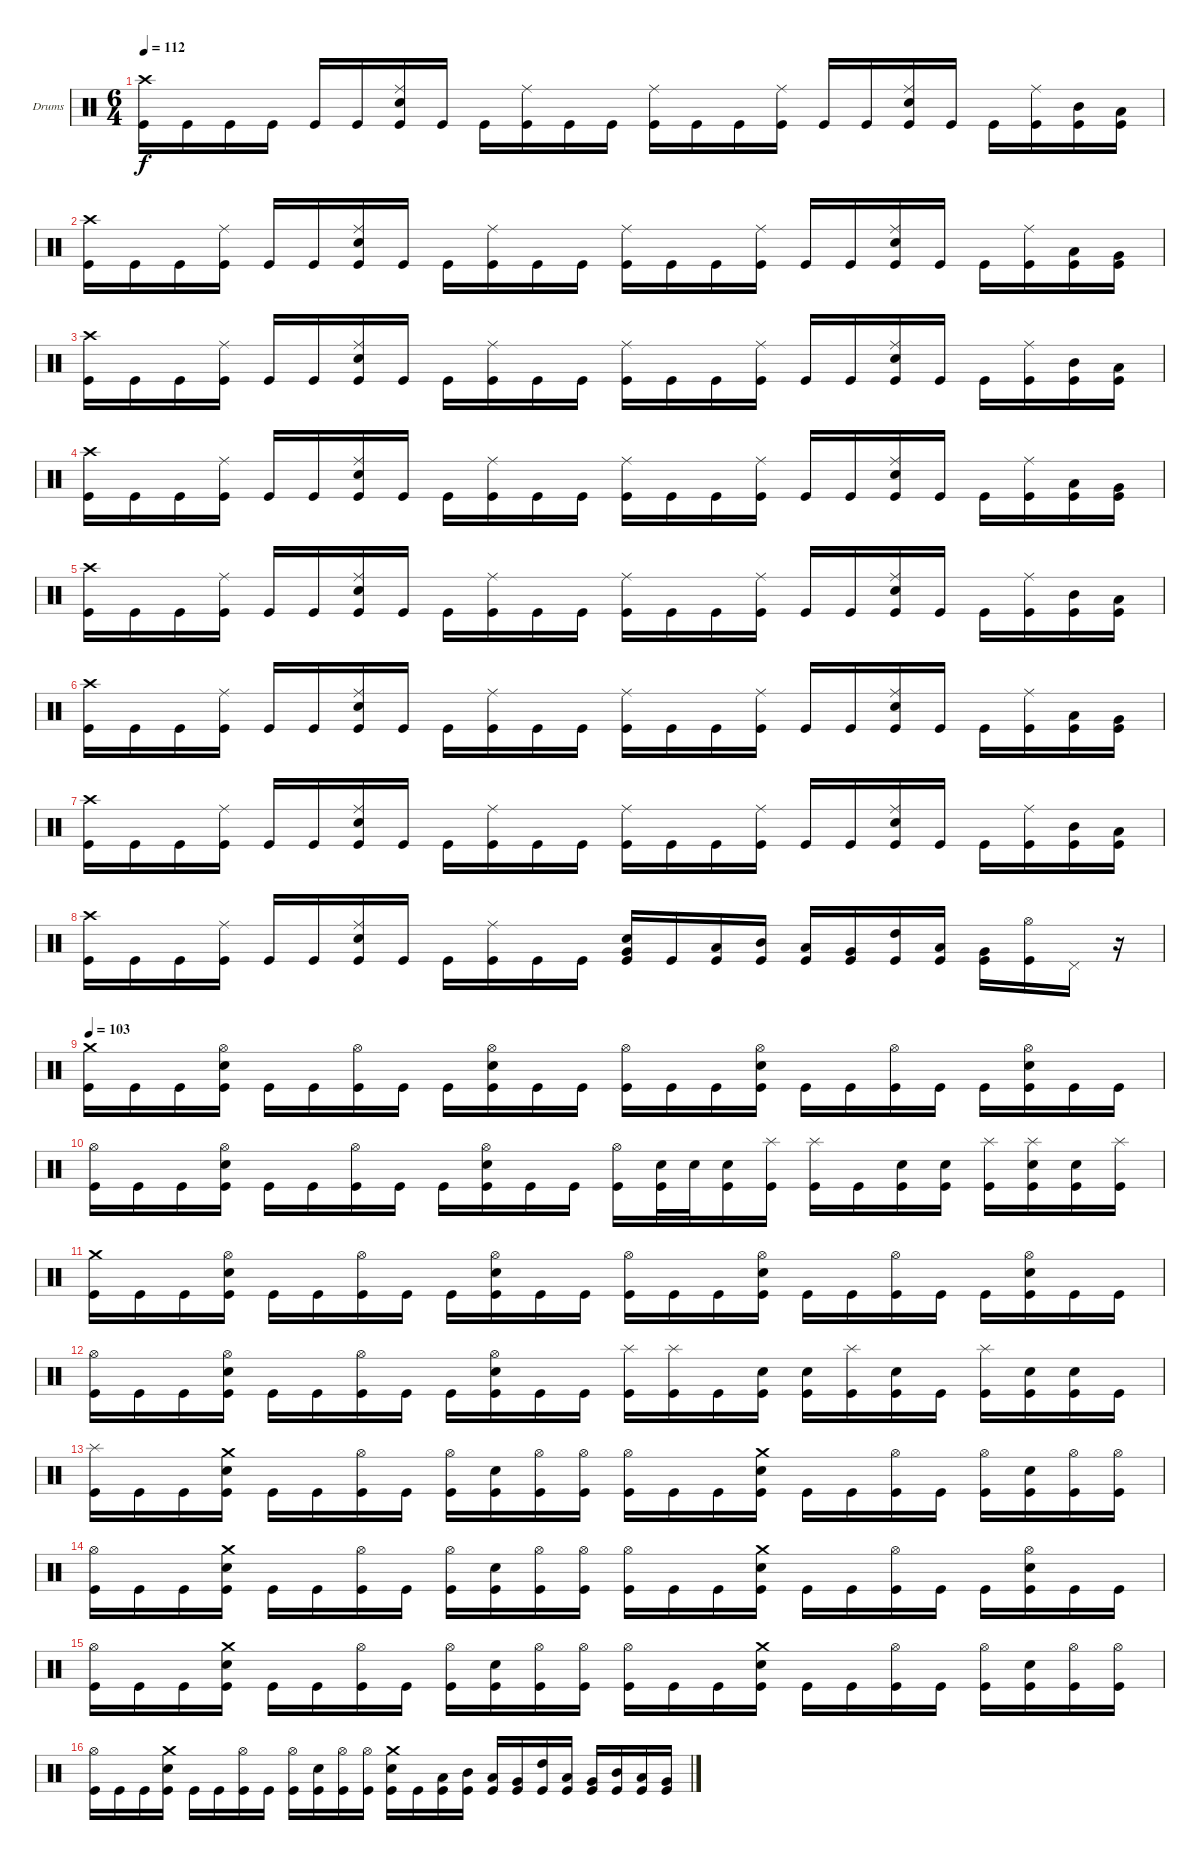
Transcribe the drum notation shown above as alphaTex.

\bracketExtendMode groupsimilarinstruments
\firstSystemTrackNameOrientation horizontal
\otherSystemsTrackNameOrientation horizontal
\track ("Drumkit" "Drums") {instrument percussion}
\staff {score}
\articulation defaults
\ts (6 4)
\tempo 112
\clef neutral
\ks c
("Crash high (hit)" "Kick (hit)").16{dy f} "Kick (hit)".16 "Kick (hit)".16 "Kick (hit)".16 "Kick (hit)".16 "Kick (hit)".16 ("Ride (middle)" "Snare (hit) 2" "Kick (hit)").16 "Kick (hit)".16 "Kick (hit)".16 ("Ride (middle)" "Kick (hit)").16 "Kick (hit)".16 "Kick (hit)".16 ("Ride (middle)" "Kick (hit)").16 "Kick (hit)".16 "Kick (hit)".16 ("Ride (middle)" "Kick (hit)").16 "Kick (hit)".16 "Kick (hit)".16 ("Ride (middle)" "Snare (hit) 2" "Kick (hit)").16 "Kick (hit)".16 "Kick (hit)".16 ("Ride (middle)" "Kick (hit)").16 ("Mid Tom (hit)" "Kick (hit)").16 ("Low Tom (hit)" "Kick (hit)").16 |
("Crash high (hit)" "Kick (hit)").16 "Kick (hit)".16 "Kick (hit)".16 ("Ride (middle)" "Kick (hit)").16 "Kick (hit)".16 "Kick (hit)".16 ("Ride (middle)" "Snare (hit) 2" "Kick (hit)").16 "Kick (hit)".16 "Kick (hit)".16 ("Ride (middle)" "Kick (hit)").16 "Kick (hit)".16 "Kick (hit)".16 ("Ride (middle)" "Kick (hit)").16 "Kick (hit)".16 "Kick (hit)".16 ("Ride (middle)" "Kick (hit)").16 "Kick (hit)".16 "Kick (hit)".16 ("Ride (middle)" "Snare (hit) 2" "Kick (hit)").16 "Kick (hit)".16 "Kick (hit)".16 ("Ride (middle)" "Kick (hit)").16 ("Low Tom (hit)" "Kick (hit)").16 ("Very Low Tom (hit)" "Kick (hit)").16 |
("Crash high (hit)" "Kick (hit)").16 "Kick (hit)".16 "Kick (hit)".16 ("Ride (middle)" "Kick (hit)").16 "Kick (hit)".16 "Kick (hit)".16 ("Ride (middle)" "Snare (hit) 2" "Kick (hit)").16 "Kick (hit)".16 "Kick (hit)".16 ("Ride (middle)" "Kick (hit)").16 "Kick (hit)".16 "Kick (hit)".16 ("Ride (middle)" "Kick (hit)").16 "Kick (hit)".16 "Kick (hit)".16 ("Ride (middle)" "Kick (hit)").16 "Kick (hit)".16 "Kick (hit)".16 ("Ride (middle)" "Snare (hit) 2" "Kick (hit)").16 "Kick (hit)".16 "Kick (hit)".16 ("Ride (middle)" "Kick (hit)").16 ("Mid Tom (hit)" "Kick (hit)").16 ("Low Tom (hit)" "Kick (hit)").16 |
("Crash high (hit)" "Kick (hit)").16 "Kick (hit)".16 "Kick (hit)".16 ("Ride (middle)" "Kick (hit)").16 "Kick (hit)".16 "Kick (hit)".16 ("Ride (middle)" "Snare (hit) 2" "Kick (hit)").16 "Kick (hit)".16 "Kick (hit)".16 ("Ride (middle)" "Kick (hit)").16 "Kick (hit)".16 "Kick (hit)".16 ("Ride (middle)" "Kick (hit)").16 "Kick (hit)".16 "Kick (hit)".16 ("Ride (middle)" "Kick (hit)").16 "Kick (hit)".16 "Kick (hit)".16 ("Ride (middle)" "Snare (hit) 2" "Kick (hit)").16 "Kick (hit)".16 "Kick (hit)".16 ("Ride (middle)" "Kick (hit)").16 ("Low Tom (hit)" "Kick (hit)").16 ("Very Low Tom (hit)" "Kick (hit)").16 |
("Crash high (hit)" "Kick (hit)").16 "Kick (hit)".16 "Kick (hit)".16 ("Ride (middle)" "Kick (hit)").16 "Kick (hit)".16 "Kick (hit)".16 ("Ride (middle)" "Snare (hit) 2" "Kick (hit)").16 "Kick (hit)".16 "Kick (hit)".16 ("Ride (middle)" "Kick (hit)").16 "Kick (hit)".16 "Kick (hit)".16 ("Ride (middle)" "Kick (hit)").16 "Kick (hit)".16 "Kick (hit)".16 ("Ride (middle)" "Kick (hit)").16 "Kick (hit)".16 "Kick (hit)".16 ("Ride (middle)" "Snare (hit) 2" "Kick (hit)").16 "Kick (hit)".16 "Kick (hit)".16 ("Ride (middle)" "Kick (hit)").16 ("Mid Tom (hit)" "Kick (hit)").16 ("Low Tom (hit)" "Kick (hit)").16 |
("Crash high (hit)" "Kick (hit)").16 "Kick (hit)".16 "Kick (hit)".16 ("Ride (middle)" "Kick (hit)").16 "Kick (hit)".16 "Kick (hit)".16 ("Ride (middle)" "Snare (hit) 2" "Kick (hit)").16 "Kick (hit)".16 "Kick (hit)".16 ("Ride (middle)" "Kick (hit)").16 "Kick (hit)".16 "Kick (hit)".16 ("Ride (middle)" "Kick (hit)").16 "Kick (hit)".16 "Kick (hit)".16 ("Ride (middle)" "Kick (hit)").16 "Kick (hit)".16 "Kick (hit)".16 ("Ride (middle)" "Snare (hit) 2" "Kick (hit)").16 "Kick (hit)".16 "Kick (hit)".16 ("Ride (middle)" "Kick (hit)").16 ("Low Tom (hit)" "Kick (hit)").16 ("Very Low Tom (hit)" "Kick (hit)").16 |
("Crash high (hit)" "Kick (hit)").16 "Kick (hit)".16 "Kick (hit)".16 ("Ride (middle)" "Kick (hit)").16 "Kick (hit)".16 "Kick (hit)".16 ("Ride (middle)" "Snare (hit) 2" "Kick (hit)").16 "Kick (hit)".16 "Kick (hit)".16 ("Ride (middle)" "Kick (hit)").16 "Kick (hit)".16 "Kick (hit)".16 ("Ride (middle)" "Kick (hit)").16 "Kick (hit)".16 "Kick (hit)".16 ("Ride (middle)" "Kick (hit)").16 "Kick (hit)".16 "Kick (hit)".16 ("Ride (middle)" "Snare (hit) 2" "Kick (hit)").16 "Kick (hit)".16 "Kick (hit)".16 ("Ride (middle)" "Kick (hit)").16 ("Mid Tom (hit)" "Kick (hit)").16 ("Low Tom (hit)" "Kick (hit)").16 |
("Crash high (hit)" "Kick (hit)").16 "Kick (hit)".16 "Kick (hit)".16 ("Ride (middle)" "Kick (hit)").16 "Kick (hit)".16 "Kick (hit)".16 ("Ride (middle)" "Snare (hit) 2" "Kick (hit)").16 "Kick (hit)".16 "Kick (hit)".16 ("Ride (middle)" "Kick (hit)").16 "Kick (hit)".16 "Kick (hit)".16 ("Snare (hit) 2" "Very Low Tom (hit)" "Kick (hit)").16 "Kick (hit)".16 ("Low Tom (hit)" "Kick (hit)").16 ("Mid Tom (hit)" "Kick (hit)").16 ("Low Tom (hit)" "Kick (hit)").16 ("Very Low Tom (hit)" "Kick (hit)").16 ("High Tom (hit)" "Kick (hit)").16 ("Low Tom (hit)" "Kick (hit)").16 ("Very Low Tom (hit)" "Kick (hit)").16 ("Hi-Hat (open)" "Kick (hit)").16 "Pedal Hi-Hat (hit)".16 r.16 |
\tempo 103
("Crash medium (hit)" "Kick (hit)").16 "Kick (hit)".16 "Kick (hit)".16 ("Hi-Hat (open)" "Snare (hit) 2" "Kick (hit)").16 "Kick (hit)".16 "Kick (hit)".16 ("Hi-Hat (open)" "Kick (hit)").16 "Kick (hit)".16 "Kick (hit)".16 ("Hi-Hat (open)" "Snare (hit) 2" "Kick (hit)").16 "Kick (hit)".16 "Kick (hit)".16 ("Hi-Hat (open)" "Kick (hit)").16 "Kick (hit)".16 "Kick (hit)".16 ("Hi-Hat (open)" "Snare (hit) 2" "Kick (hit)").16 "Kick (hit)".16 "Kick (hit)".16 ("Hi-Hat (open)" "Kick (hit)").16 "Kick (hit)".16 "Kick (hit)".16 ("Hi-Hat (open)" "Snare (hit) 2" "Kick (hit)").16 "Kick (hit)".16 "Kick (hit)".16 |
("Hi-Hat (open)" "Kick (hit)").16 "Kick (hit)".16 "Kick (hit)".16 ("Hi-Hat (open)" "Snare (hit) 2" "Kick (hit)").16 "Kick (hit)".16 "Kick (hit)".16 ("Hi-Hat (open)" "Kick (hit)").16 "Kick (hit)".16 "Kick (hit)".16 ("Hi-Hat (open)" "Snare (hit) 2" "Kick (hit)").16 "Kick (hit)".16 "Kick (hit)".16 ("Hi-Hat (open)" "Kick (hit)").16 ("Snare (hit) 2" "Kick (hit)").32 "Snare (hit) 2".32 ("Snare (hit) 2" "Kick (hit)").16 ("Splash (hit)" "Kick (hit)").16 ("Splash (hit)" "Kick (hit)").16 "Kick (hit)".16 ("Snare (hit) 2" "Kick (hit)").16 ("Snare (hit) 2" "Kick (hit)").16 ("Splash (hit)" "Kick (hit)").16 ("Splash (hit)" "Snare (hit) 2" "Kick (hit)").16 ("Snare (hit) 2" "Kick (hit)").16 ("Splash (hit)" "Kick (hit)").16 |
("Crash medium (hit)" "Kick (hit)").16 "Kick (hit)".16 "Kick (hit)".16 ("Hi-Hat (open)" "Snare (hit) 2" "Kick (hit)").16 "Kick (hit)".16 "Kick (hit)".16 ("Hi-Hat (open)" "Kick (hit)").16 "Kick (hit)".16 "Kick (hit)".16 ("Hi-Hat (open)" "Snare (hit) 2" "Kick (hit)").16 "Kick (hit)".16 "Kick (hit)".16 ("Hi-Hat (open)" "Kick (hit)").16 "Kick (hit)".16 "Kick (hit)".16 ("Hi-Hat (open)" "Snare (hit) 2" "Kick (hit)").16 "Kick (hit)".16 "Kick (hit)".16 ("Hi-Hat (open)" "Kick (hit)").16 "Kick (hit)".16 "Kick (hit)".16 ("Hi-Hat (open)" "Snare (hit) 2" "Kick (hit)").16 "Kick (hit)".16 "Kick (hit)".16 |
("Hi-Hat (open)" "Kick (hit)").16 "Kick (hit)".16 "Kick (hit)".16 ("Hi-Hat (open)" "Snare (hit) 2" "Kick (hit)").16 "Kick (hit)".16 "Kick (hit)".16 ("Hi-Hat (open)" "Kick (hit)").16 "Kick (hit)".16 "Kick (hit)".16 ("Hi-Hat (open)" "Snare (hit) 2" "Kick (hit)").16 "Kick (hit)".16 "Kick (hit)".16 ("Splash (hit)" "Kick (hit)").16 ("Splash (hit)" "Kick (hit)").16 "Kick (hit)".16 ("Snare (hit) 2" "Kick (hit)").16 ("Snare (hit) 2" "Kick (hit)").16 ("Splash (hit)" "Kick (hit)").16 ("Snare (hit) 2" "Kick (hit)").16 "Kick (hit)".16 ("Splash (hit)" "Kick (hit)").16 ("Snare (hit) 2" "Kick (hit)").16 ("Snare (hit) 2" "Kick (hit)").16 "Kick (hit)".16 |
("Splash (hit)" "Kick (hit)").16 "Kick (hit)".16 "Kick (hit)".16 ("Crash medium (hit)" "Snare (hit) 2" "Kick (hit)").16 "Kick (hit)".16 "Kick (hit)".16 ("Hi-Hat (open)" "Kick (hit)").16 "Kick (hit)".16 ("Hi-Hat (open)" "Kick (hit)").16 ("Snare (hit) 2" "Kick (hit)").16 ("Hi-Hat (open)" "Kick (hit)").16 ("Hi-Hat (open)" "Kick (hit)").16 ("Hi-Hat (open)" "Kick (hit)").16 "Kick (hit)".16 "Kick (hit)".16 ("Crash medium (hit)" "Snare (hit) 2" "Kick (hit)").16 "Kick (hit)".16 "Kick (hit)".16 ("Hi-Hat (open)" "Kick (hit)").16 "Kick (hit)".16 ("Hi-Hat (open)" "Kick (hit)").16 ("Snare (hit) 2" "Kick (hit)").16 ("Hi-Hat (open)" "Kick (hit)").16 ("Hi-Hat (open)" "Kick (hit)").16 |
("Hi-Hat (open)" "Kick (hit)").16 "Kick (hit)".16 "Kick (hit)".16 ("Crash medium (hit)" "Snare (hit) 2" "Kick (hit)").16 "Kick (hit)".16 "Kick (hit)".16 ("Hi-Hat (open)" "Kick (hit)").16 "Kick (hit)".16 ("Hi-Hat (open)" "Kick (hit)").16 ("Snare (hit) 2" "Kick (hit)").16 ("Hi-Hat (open)" "Kick (hit)").16 ("Hi-Hat (open)" "Kick (hit)").16 ("Hi-Hat (open)" "Kick (hit)").16 "Kick (hit)".16 "Kick (hit)".16 ("Crash medium (hit)" "Snare (hit) 2" "Kick (hit)").16 "Kick (hit)".16 "Kick (hit)".16 ("Hi-Hat (open)" "Kick (hit)").16 "Kick (hit)".16 "Kick (hit)".16 ("Hi-Hat (open)" "Snare (hit) 2" "Kick (hit)").16 "Kick (hit)".16 "Kick (hit)".16 |
("Hi-Hat (open)" "Kick (hit)").16 "Kick (hit)".16 "Kick (hit)".16 ("Crash medium (hit)" "Snare (hit) 2" "Kick (hit)").16 "Kick (hit)".16 "Kick (hit)".16 ("Hi-Hat (open)" "Kick (hit)").16 "Kick (hit)".16 ("Hi-Hat (open)" "Kick (hit)").16 ("Snare (hit) 2" "Kick (hit)").16 ("Hi-Hat (open)" "Kick (hit)").16 ("Hi-Hat (open)" "Kick (hit)").16 ("Hi-Hat (open)" "Kick (hit)").16 "Kick (hit)".16 "Kick (hit)".16 ("Crash medium (hit)" "Snare (hit) 2" "Kick (hit)").16 "Kick (hit)".16 "Kick (hit)".16 ("Hi-Hat (open)" "Kick (hit)").16 "Kick (hit)".16 ("Hi-Hat (open)" "Kick (hit)").16 ("Snare (hit) 2" "Kick (hit)").16 ("Hi-Hat (open)" "Kick (hit)").16 ("Hi-Hat (open)" "Kick (hit)").16 |
("Hi-Hat (open)" "Kick (hit)").16 "Kick (hit)".16 "Kick (hit)".16 ("Crash medium (hit)" "Snare (hit) 2" "Kick (hit)").16 "Kick (hit)".16 "Kick (hit)".16 ("Hi-Hat (open)" "Kick (hit)").16 "Kick (hit)".16 ("Hi-Hat (open)" "Kick (hit)").16 ("Snare (hit) 2" "Kick (hit)").16 ("Hi-Hat (open)" "Kick (hit)").16 ("Hi-Hat (open)" "Kick (hit)").16 ("Crash medium (hit)" "Snare (hit) 2" "Kick (hit)").16 "Kick (hit)".16 ("Low Tom (hit)" "Kick (hit)").16 ("Mid Tom (hit)" "Kick (hit)").16 ("Low Tom (hit)" "Kick (hit)").16 ("Very Low Tom (hit)" "Kick (hit)").16 ("High Tom (hit)" "Kick (hit)").16 ("Low Tom (hit)" "Kick (hit)").16 ("Very Low Tom (hit)" "Kick (hit)").16 ("Mid Tom (hit)" "Kick (hit)").16 ("Low Tom (hit)" "Kick (hit)").16 ("Very Low Tom (hit)" "Kick (hit)").16
